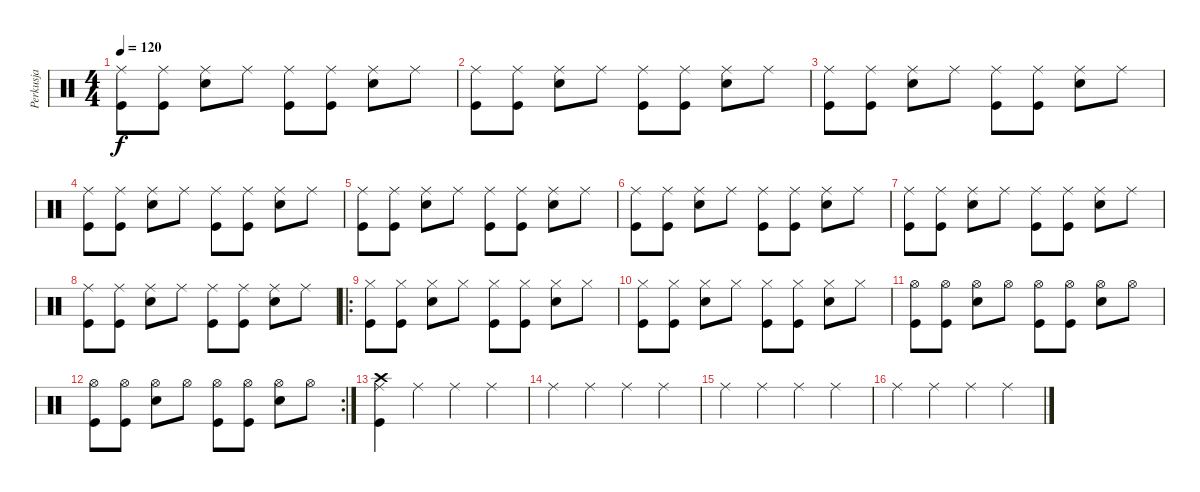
\track ("Perkusja" "Perkusja") {instrument percussion}
\staff {score}
\articulation defaults
\ts (4 4)
\tempo 120
\clef neutral
\ks c
("Ride (middle)" "Kick (hit)").8{dy f} ("Ride (middle)" "Kick (hit)").8 ("Ride (middle)" "Electric Snare (hit)").8 "Ride (middle)".8 ("Ride (middle)" "Kick (hit)").8 ("Ride (middle)" "Kick (hit)").8 ("Ride (middle)" "Electric Snare (hit)").8 "Ride (middle)".8 |
("Ride (middle)" "Kick (hit)").8 ("Ride (middle)" "Kick (hit)").8 ("Ride (middle)" "Electric Snare (hit)").8 "Ride (middle)".8 ("Ride (middle)" "Kick (hit)").8 ("Ride (middle)" "Kick (hit)").8 ("Ride (middle)" "Electric Snare (hit)").8 "Ride (middle)".8 |
("Ride (middle)" "Kick (hit)").8 ("Ride (middle)" "Kick (hit)").8 ("Ride (middle)" "Electric Snare (hit)").8 "Ride (middle)".8 ("Ride (middle)" "Kick (hit)").8 ("Ride (middle)" "Kick (hit)").8 ("Ride (middle)" "Electric Snare (hit)").8 "Ride (middle)".8 |
("Ride (middle)" "Kick (hit)").8 ("Ride (middle)" "Kick (hit)").8 ("Ride (middle)" "Electric Snare (hit)").8 "Ride (middle)".8 ("Ride (middle)" "Kick (hit)").8 ("Ride (middle)" "Kick (hit)").8 ("Ride (middle)" "Electric Snare (hit)").8 "Ride (middle)".8 |
("Ride (middle)" "Kick (hit)").8 ("Ride (middle)" "Kick (hit)").8 ("Ride (middle)" "Electric Snare (hit)").8 "Ride (middle)".8 ("Ride (middle)" "Kick (hit)").8 ("Ride (middle)" "Kick (hit)").8 ("Ride (middle)" "Electric Snare (hit)").8 "Ride (middle)".8 |
("Ride (middle)" "Kick (hit)").8 ("Ride (middle)" "Kick (hit)").8 ("Ride (middle)" "Electric Snare (hit)").8 "Ride (middle)".8 ("Ride (middle)" "Kick (hit)").8 ("Ride (middle)" "Kick (hit)").8 ("Ride (middle)" "Electric Snare (hit)").8 "Ride (middle)".8 |
("Ride (middle)" "Kick (hit)").8 ("Ride (middle)" "Kick (hit)").8 ("Ride (middle)" "Electric Snare (hit)").8 "Ride (middle)".8 ("Ride (middle)" "Kick (hit)").8 ("Ride (middle)" "Kick (hit)").8 ("Ride (middle)" "Electric Snare (hit)").8 "Ride (middle)".8 |
("Ride (middle)" "Kick (hit)").8 ("Ride (middle)" "Kick (hit)").8 ("Ride (middle)" "Electric Snare (hit)").8 "Ride (middle)".8 ("Ride (middle)" "Kick (hit)").8 ("Ride (middle)" "Kick (hit)").8 ("Ride (middle)" "Electric Snare (hit)").8 "Ride (middle)".8 |
\ro
("Hi-Hat (closed)" "Kick (hit)").8 ("Hi-Hat (closed)" "Kick (hit)").8 ("Hi-Hat (closed)" "Electric Snare (hit)").8 "Hi-Hat (closed)".8 ("Hi-Hat (closed)" "Kick (hit)").8 ("Hi-Hat (closed)" "Kick (hit)").8 ("Hi-Hat (closed)" "Electric Snare (hit)").8 "Hi-Hat (closed)".8 |
("Hi-Hat (closed)" "Kick (hit)").8 ("Hi-Hat (closed)" "Kick (hit)").8 ("Hi-Hat (closed)" "Electric Snare (hit)").8 "Hi-Hat (closed)".8 ("Hi-Hat (closed)" "Kick (hit)").8 ("Hi-Hat (closed)" "Kick (hit)").8 ("Hi-Hat (closed)" "Electric Snare (hit)").8 "Hi-Hat (closed)".8 |
("Hi-Hat (open)" "Kick (hit)").8 ("Hi-Hat (open)" "Kick (hit)").8 ("Hi-Hat (open)" "Electric Snare (hit)").8 "Hi-Hat (open)".8 ("Hi-Hat (open)" "Kick (hit)").8 ("Hi-Hat (open)" "Kick (hit)").8 ("Hi-Hat (open)" "Electric Snare (hit)").8 "Hi-Hat (open)".8 |
\rc 2
("Hi-Hat (open)" "Kick (hit)").8 ("Hi-Hat (open)" "Kick (hit)").8 ("Hi-Hat (open)" "Electric Snare (hit)").8 "Hi-Hat (open)".8 ("Hi-Hat (open)" "Kick (hit)").8 ("Hi-Hat (open)" "Kick (hit)").8 ("Hi-Hat (open)" "Electric Snare (hit)").8 "Hi-Hat (open)".8 |
("Ride (middle)" "Crash high (hit)" "Kick (hit)").4 "Ride (middle)".4 "Ride (middle)".4 "Ride (middle)".4 |
"Ride (middle)".4 "Ride (middle)".4 "Ride (middle)".4 "Ride (middle)".4 |
"Ride (middle)".4 "Ride (middle)".4 "Ride (middle)".4 "Ride (middle)".4 |
"Ride (middle)".4 "Ride (middle)".4 "Ride (middle)".4 "Ride (middle)".4
